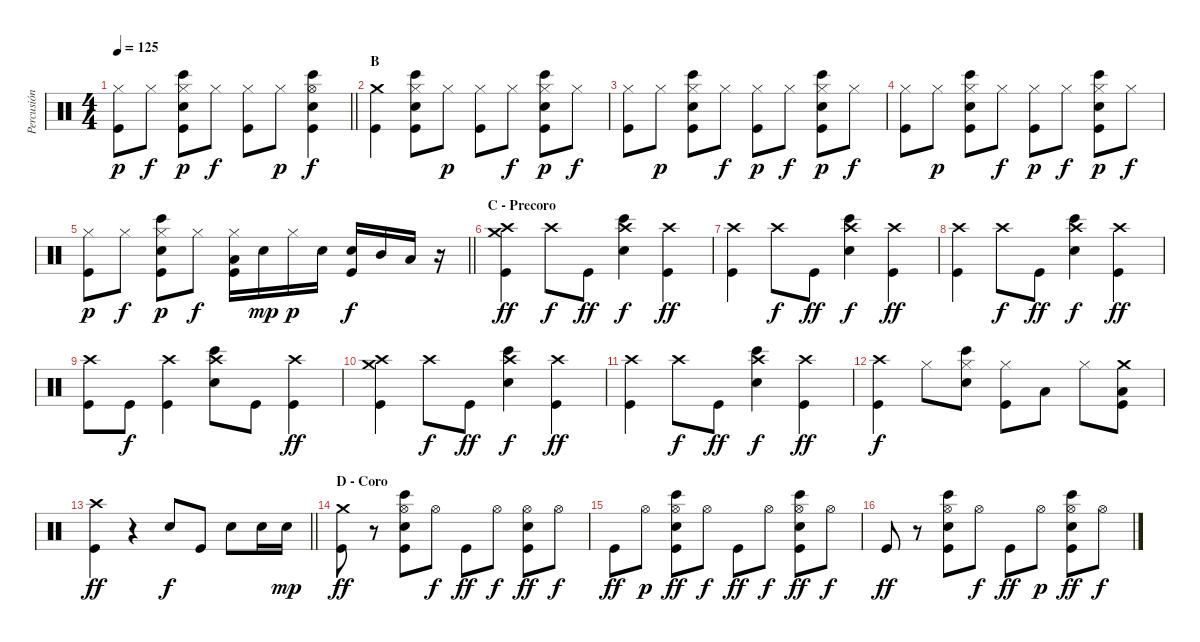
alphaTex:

\track ("Percusión" "Percusión") {instrument percussion}
\staff {score}
\articulation defaults
\ts (4 4)
\tempo 125
\clef neutral
\barLineRight lightlight
\ks c
("Hi-Hat (closed)" "Kick (hit)").8{dy p} "Hi-Hat (closed)".8{dy f} ("Hi-Hat (closed)" "Bongo High (hit)" "Snare (hit) 2" "Kick (hit)").8{dy p} "Hi-Hat (closed)".8{dy f} ("Hi-Hat (closed)" "Kick (hit)").8 "Hi-Hat (closed)".8{dy p} ("Hi-Hat (open)" "Bongo High (hit)" "Snare (hit) 2" "Kick (hit)").4{dy f} |
\section ("" "B")
("Crash medium (hit)" "Kick (hit)").4 ("Hi-Hat (closed)" "Bongo High (hit)" "Snare (hit) 2" "Kick (hit)").8 "Hi-Hat (closed)".8{dy p} ("Hi-Hat (closed)" "Kick (hit)").8 "Hi-Hat (closed)".8{dy f} ("Hi-Hat (closed)" "Bongo High (hit)" "Snare (hit) 2" "Kick (hit)").8{dy p} "Hi-Hat (closed)".8{dy f} |
("Hi-Hat (closed)" "Kick (hit)").8 "Hi-Hat (closed)".8{dy p} ("Hi-Hat (closed)" "Bongo High (hit)" "Snare (hit) 2" "Kick (hit)").8 "Hi-Hat (closed)".8{dy f} ("Hi-Hat (closed)" "Kick (hit)").8{dy p} "Hi-Hat (closed)".8{dy f} ("Hi-Hat (closed)" "Bongo High (hit)" "Snare (hit) 2" "Kick (hit)").8{dy p} "Hi-Hat (closed)".8{dy f} |
("Hi-Hat (closed)" "Kick (hit)").8 "Hi-Hat (closed)".8{dy p} ("Hi-Hat (closed)" "Bongo High (hit)" "Snare (hit) 2" "Kick (hit)").8 "Hi-Hat (closed)".8{dy f} ("Hi-Hat (closed)" "Kick (hit)").8{dy p} "Hi-Hat (closed)".8{dy f} ("Hi-Hat (closed)" "Bongo High (hit)" "Snare (hit) 2" "Kick (hit)").8{dy p} "Hi-Hat (closed)".8{dy f} |
\barLineRight lightlight
("Hi-Hat (closed)" "Kick (hit)").8{dy p} "Hi-Hat (closed)".8{dy f} ("Hi-Hat (closed)" "Bongo High (hit)" "Snare (hit) 2" "Kick (hit)").8{dy p} "Hi-Hat (closed)".8{dy f} ("Hi-Hat (closed)" "Low Floor Tom (hit)" "Kick (hit)").16 "Snare (hit) 2".16{dy mp} "Hi-Hat (closed)".16{dy p} "Snare (hit) 2".16 ("Snare (hit) 2" "Kick (hit)").16{dy f} "Mid Tom (hit)".16 "Low Tom (hit)".16 r.16 |
\section ("" "C - Precoro")
("Crash high (hit)" "Crash medium (hit)" "Kick (hit)").4{dy ff} "Crash high (hit)".8{dy f} "Kick (hit)".8{dy ff} ("Crash high (hit)" "Bongo High (hit)" "Snare (hit) 2").4{dy f} ("Crash high (hit)" "Kick (hit)").4{dy ff} |
("Crash high (hit)" "Kick (hit)").4 "Crash high (hit)".8{dy f} "Kick (hit)".8{dy ff} ("Crash high (hit)" "Bongo High (hit)" "Snare (hit) 2").4{dy f} ("Crash high (hit)" "Kick (hit)").4{dy ff} |
("Crash high (hit)" "Kick (hit)").4 "Crash high (hit)".8{dy f} "Kick (hit)".8{dy ff} ("Crash high (hit)" "Bongo High (hit)" "Snare (hit) 2").4{dy f} ("Crash high (hit)" "Kick (hit)").4{dy ff} |
("Crash high (hit)" "Kick (hit)").8 "Kick (hit)".8{dy f} ("Crash high (hit)" "Kick (hit)").4 ("Crash high (hit)" "Bongo High (hit)" "Snare (hit) 2").8 "Kick (hit)".8 ("Crash high (hit)" "Kick (hit)").4{dy ff} |
("Crash high (hit)" "Crash medium (hit)" "Kick (hit)").4 "Crash high (hit)".8{dy f} "Kick (hit)".8{dy ff} ("Crash high (hit)" "Bongo High (hit)" "Snare (hit) 2").4{dy f} ("Crash high (hit)" "Kick (hit)").4{dy ff} |
("Crash high (hit)" "Kick (hit)").4 "Crash high (hit)".8{dy f} "Kick (hit)".8{dy ff} ("Crash high (hit)" "Bongo High (hit)" "Snare (hit) 2").4{dy f} ("Crash high (hit)" "Kick (hit)").4{dy ff} |
("Crash high (hit)" "Kick (hit)").4{dy f} "Hi-Hat (closed)".8 ("Hi-Hat (closed)" "Bongo High (hit)" "Snare (hit) 2").8 ("Hi-Hat (closed)" "Kick (hit)").8 "Low Floor Tom (hit)".8 "Hi-Hat (closed)".8 ("Crash medium (hit)" "Low Tom (hit)" "Kick (hit)").8 |
\barLineRight lightlight
("Crash high (hit)" "Kick (hit)").4{dy ff} r.4 "Snare (hit) 2".8{dy f} "Kick (hit)".8 "Snare (hit) 2".8 "Snare (hit) 2".16 "Snare (hit) 2".16{dy mp} |
\section ("" "D - Coro")
("Crash medium (hit)" "Kick (hit)").8{dy ff} r.8 ("Hi-Hat (open)" "Bongo High (hit)" "Snare (hit) 2" "Kick (hit)").8 "Hi-Hat (open)".8{dy f} "Kick (hit)".8{dy ff} "Hi-Hat (open)".8{dy f} ("Hi-Hat (open)" "Snare (hit) 2" "Kick (hit)").8{dy ff} "Hi-Hat (open)".8{dy f} |
"Kick (hit)".8{dy ff} "Hi-Hat (open)".8{dy p} ("Hi-Hat (open)" "Bongo High (hit)" "Snare (hit) 2" "Kick (hit)").8{dy ff} "Hi-Hat (open)".8{dy f} "Kick (hit)".8{dy ff} "Hi-Hat (open)".8{dy f} ("Hi-Hat (open)" "Bongo High (hit)" "Snare (hit) 2" "Kick (hit)").8{dy ff} "Hi-Hat (open)".8{dy f} |
"Kick (hit)".8{dy ff} r.8 ("Hi-Hat (open)" "Bongo High (hit)" "Snare (hit) 2" "Kick (hit)").8 "Hi-Hat (open)".8{dy f} "Kick (hit)".8{dy ff} "Hi-Hat (open)".8{dy p} ("Hi-Hat (open)" "Bongo High (hit)" "Snare (hit) 2" "Kick (hit)").8{dy ff} "Hi-Hat (open)".8{dy f}
